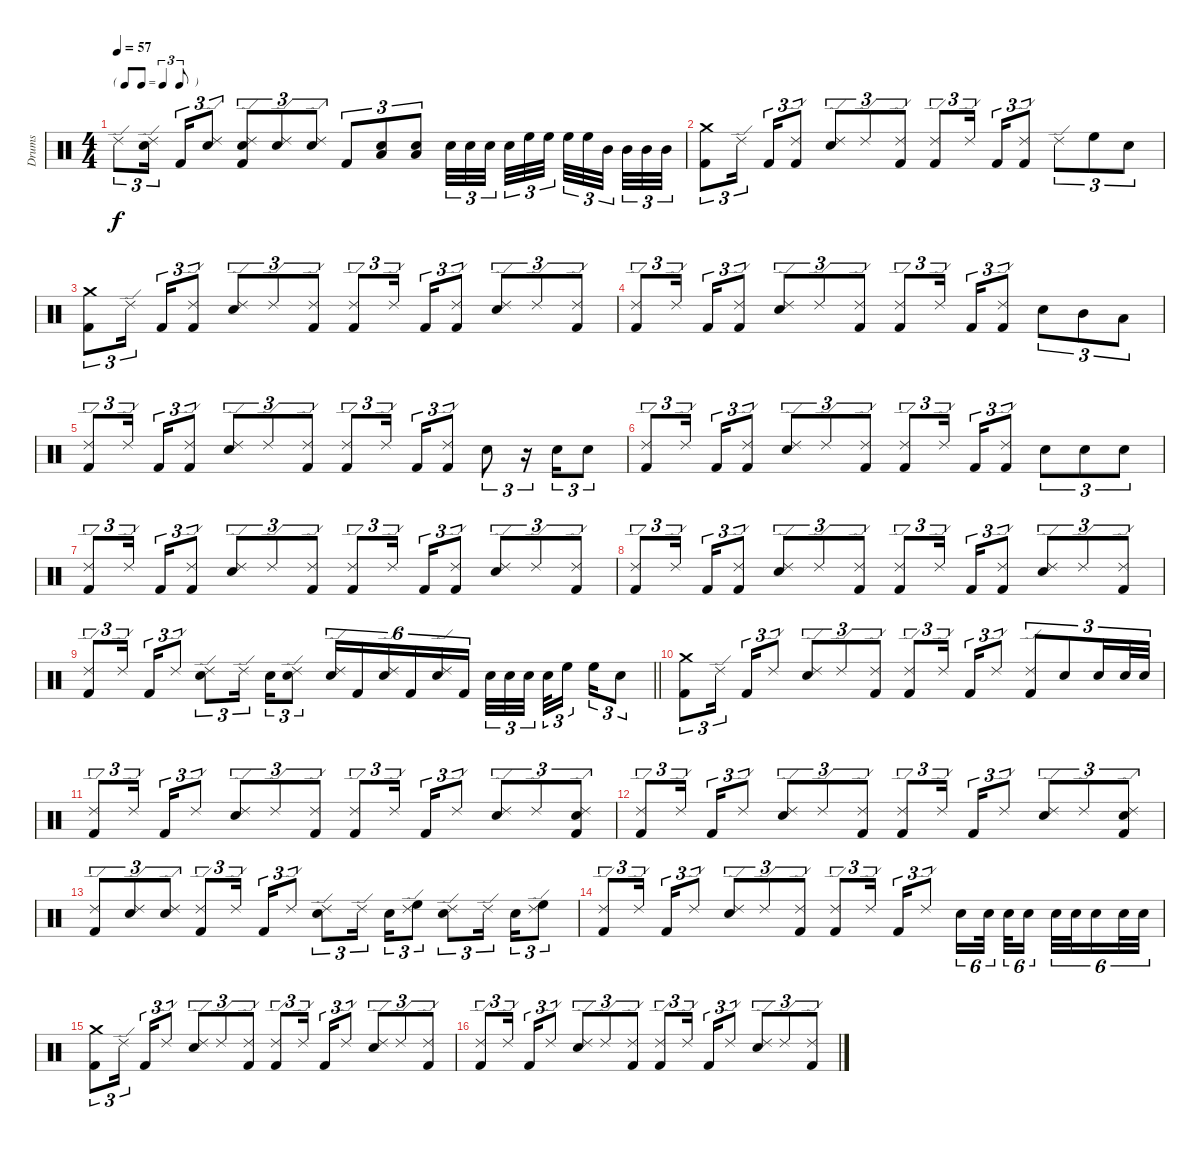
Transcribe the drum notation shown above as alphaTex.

\track ("Drums" "Drums") {instrument percussion}
\staff {score}
\articulation defaults
\ts (4 4)
\tf triplet8th
\tempo 57
\clef neutral
\ks c "Ride (edge) 2".8{tu (3 2) dy f}
("Ride (edge) 2" "Snare (hit) 2").16{tu (3 2)} "Kick (hit) 2".16{tu (3 2)} ("Ride (edge) 2" "Snare (hit) 2").8{tu (3 2)} ("Ride (edge) 2" "Snare (hit) 2" "Kick (hit) 2").8{tu (3 2)} ("Ride (edge) 2" "Snare (hit) 2").8{tu (3 2)} ("Ride (edge) 2" "Snare (hit) 2").8{tu (3 2)} "Kick (hit) 2".8{tu (3 2)} ("Snare (hit) 2" "Low Tom (hit)").8{tu (3 2)} ("Snare (hit) 2" "Low Tom (hit)").8{tu (3 2)} "Snare (hit) 2".32{tu (3 2)} "Snare (hit) 2".32{tu (3 2)} "Snare (hit) 2".32{tu (3 2)} "Snare (hit) 2".32{tu (3 2)} "High Floor Tom (hit)".32{tu (3 2)} "High Floor Tom (hit)".32{tu (3 2)} "High Floor Tom (hit)".32{tu (3 2)} "High Floor Tom (hit)".32{tu (3 2)} "Mid Tom (hit)".32{tu (3 2)} "Mid Tom (hit)".32{tu (3 2)} "Mid Tom (hit)".32{tu (3 2)} "Mid Tom (hit)".32{tu (3 2)} |
("Crash medium (hit)" "Kick (hit) 2").8{tu (3 2)} "Ride (edge) 2".16{tu (3 2)} "Kick (hit) 2".16{tu (3 2)} ("Ride (edge) 2" "Kick (hit) 2").8{tu (3 2)} ("Ride (edge) 2" "Snare (hit) 2").8{tu (3 2)} "Ride (edge) 2".8{tu (3 2)} ("Ride (edge) 2" "Kick (hit) 2").8{tu (3 2)} ("Ride (edge) 2" "Kick (hit) 2").8{tu (3 2)} "Ride (edge) 2".16{tu (3 2)} "Kick (hit) 2".16{tu (3 2)} ("Ride (edge) 2" "Kick (hit) 2").8{tu (3 2)} "Ride (edge) 2".8{tu (3 2)} "High Floor Tom (hit)".8{tu (3 2)} "Snare (hit) 2".8{tu (3 2)} |
("Crash medium (hit)" "Kick (hit) 2").8{tu (3 2)} "Ride (edge) 2".16{tu (3 2)} "Kick (hit) 2".16{tu (3 2)} ("Ride (edge) 2" "Kick (hit) 2").8{tu (3 2)} ("Ride (edge) 2" "Snare (hit) 2").8{tu (3 2)} "Ride (edge) 2".8{tu (3 2)} ("Ride (edge) 2" "Kick (hit) 2").8{tu (3 2)} ("Ride (edge) 2" "Kick (hit) 2").8{tu (3 2)} "Ride (edge) 2".16{tu (3 2)} "Kick (hit) 2".16{tu (3 2)} ("Ride (edge) 2" "Kick (hit) 2").8{tu (3 2)} ("Ride (edge) 2" "Snare (hit) 2").8{tu (3 2)} "Ride (edge) 2".8{tu (3 2)} ("Ride (edge) 2" "Kick (hit) 2").8{tu (3 2)} |
("Ride (edge) 2" "Kick (hit) 2").8{tu (3 2)} "Ride (edge) 2".16{tu (3 2)} "Kick (hit) 2".16{tu (3 2)} ("Ride (edge) 2" "Kick (hit) 2").8{tu (3 2)} ("Ride (edge) 2" "Snare (hit) 2").8{tu (3 2)} "Ride (edge) 2".8{tu (3 2)} ("Ride (edge) 2" "Kick (hit) 2").8{tu (3 2)} ("Ride (edge) 2" "Kick (hit) 2").8{tu (3 2)} "Ride (edge) 2".16{tu (3 2)} "Kick (hit) 2".16{tu (3 2)} ("Ride (edge) 2" "Kick (hit) 2").8{tu (3 2)} "Snare (hit) 2".8{tu (3 2)} "Mid Tom (hit)".8{tu (3 2)} "Low Tom (hit)".8{tu (3 2)} |
("Ride (edge) 2" "Kick (hit) 2").8{tu (3 2)} "Ride (edge) 2".16{tu (3 2)} "Kick (hit) 2".16{tu (3 2)} ("Ride (edge) 2" "Kick (hit) 2").8{tu (3 2)} ("Ride (edge) 2" "Snare (hit) 2").8{tu (3 2)} "Ride (edge) 2".8{tu (3 2)} ("Ride (edge) 2" "Kick (hit) 2").8{tu (3 2)} ("Ride (edge) 2" "Kick (hit) 2").8{tu (3 2)} "Ride (edge) 2".16{tu (3 2)} "Kick (hit) 2".16{tu (3 2)} ("Ride (edge) 2" "Kick (hit) 2").8{tu (3 2)} "Snare (hit) 2".8{tu (3 2)} r.16{tu (3 2)} "Snare (hit) 2".16{tu (3 2)} "Snare (hit) 2".8{tu (3 2)} |
("Ride (edge) 2" "Kick (hit) 2").8{tu (3 2)} "Ride (edge) 2".16{tu (3 2)} "Kick (hit) 2".16{tu (3 2)} ("Ride (edge) 2" "Kick (hit) 2").8{tu (3 2)} ("Ride (edge) 2" "Snare (hit) 2").8{tu (3 2)} "Ride (edge) 2".8{tu (3 2)} ("Ride (edge) 2" "Kick (hit) 2").8{tu (3 2)} ("Ride (edge) 2" "Kick (hit) 2").8{tu (3 2)} "Ride (edge) 2".16{tu (3 2)} "Kick (hit) 2".16{tu (3 2)} ("Ride (edge) 2" "Kick (hit) 2").8{tu (3 2)} "Snare (hit) 2".8{tu (3 2)} "Snare (hit) 2".8{tu (3 2)} "Snare (hit) 2".8{tu (3 2)} |
("Ride (edge) 2" "Kick (hit) 2").8{tu (3 2)} "Ride (edge) 2".16{tu (3 2)} "Kick (hit) 2".16{tu (3 2)} ("Ride (edge) 2" "Kick (hit) 2").8{tu (3 2)} ("Ride (edge) 2" "Snare (hit) 2").8{tu (3 2)} "Ride (edge) 2".8{tu (3 2)} ("Ride (edge) 2" "Kick (hit) 2").8{tu (3 2)} ("Ride (edge) 2" "Kick (hit) 2").8{tu (3 2)} "Ride (edge) 2".16{tu (3 2)} "Kick (hit) 2".16{tu (3 2)} ("Ride (edge) 2" "Kick (hit) 2").8{tu (3 2)} ("Ride (edge) 2" "Snare (hit) 2").8{tu (3 2)} "Ride (edge) 2".8{tu (3 2)} ("Ride (edge) 2" "Kick (hit) 2").8{tu (3 2)} |
("Ride (edge) 2" "Kick (hit) 2").8{tu (3 2)} "Ride (edge) 2".16{tu (3 2)} "Kick (hit) 2".16{tu (3 2)} ("Ride (edge) 2" "Kick (hit) 2").8{tu (3 2)} ("Ride (edge) 2" "Snare (hit) 2").8{tu (3 2)} "Ride (edge) 2".8{tu (3 2)} ("Ride (edge) 2" "Kick (hit) 2").8{tu (3 2)} ("Ride (edge) 2" "Kick (hit) 2").8{tu (3 2)} "Ride (edge) 2".16{tu (3 2)} "Kick (hit) 2".16{tu (3 2)} ("Ride (edge) 2" "Kick (hit) 2").8{tu (3 2)} ("Ride (edge) 2" "Snare (hit) 2").8{tu (3 2)} "Ride (edge) 2".8{tu (3 2)} ("Ride (edge) 2" "Kick (hit) 2").8{tu (3 2)} |
\barLineRight lightlight
("Ride (edge) 2" "Kick (hit) 2").8{tu (3 2)} "Ride (edge) 2".16{tu (3 2)} "Kick (hit) 2".16{tu (3 2)} "Ride (edge) 2".8{tu (3 2)} ("Ride (edge) 2" "Snare (hit) 2").8{tu (3 2)} "Ride (edge) 2".16{tu (3 2)} "Snare (hit) 2".16{tu (3 2)} ("Ride (edge) 2" "Snare (hit) 2").8{tu (3 2)} ("Ride (edge) 2" "Snare (hit) 2").16{tu (6 4)} "Kick (hit) 2".16{tu (6 4)} ("Ride (edge) 2" "Snare (hit) 2").16{tu (6 4)} "Kick (hit) 2".16{tu (6 4)} ("Ride (edge) 2" "Snare (hit) 2").16{tu (6 4)} "Kick (hit) 2".16{tu (6 4)} "Snare (hit) 2".32{tu (3 2)} "Snare (hit) 2".32{tu (3 2)} "Snare (hit) 2".32{tu (3 2)} "Snare (hit) 2".32{tu (3 2)} "High Floor Tom (hit)".16{tu (3 2)} "High Floor Tom (hit)".16{tu (3 2)} "Snare (hit) 2".8{tu (3 2)} |
("Crash medium (hit)" "Kick (hit) 2").8{tu (3 2)} "Ride (edge) 2".16{tu (3 2)} "Kick (hit) 2".16{tu (3 2)} "Ride (edge) 2".8{tu (3 2)} ("Ride (edge) 2" "Snare (hit) 2").8{tu (3 2)} "Ride (edge) 2".8{tu (3 2)} ("Ride (edge) 2" "Kick (hit) 2").8{tu (3 2)} ("Ride (edge) 2" "Kick (hit) 2").8{tu (3 2)} "Ride (edge) 2".16{tu (3 2)} "Kick (hit) 2".16{tu (3 2)} "Ride (edge) 2".8{tu (3 2)} ("Ride (edge) 2" "Kick (hit) 2").8{tu (3 2)} "Snare (hit) 2".8{tu (3 2)} "Snare (hit) 2".16{tu (3 2)} "Snare (hit) 2".32{tu (3 2)} "Snare (hit) 2".32{tu (3 2)} |
("Ride (edge) 2" "Kick (hit) 2").8{tu (3 2)} "Ride (edge) 2".16{tu (3 2)} "Kick (hit) 2".16{tu (3 2)} "Ride (edge) 2".8{tu (3 2)} ("Ride (edge) 2" "Snare (hit) 2").8{tu (3 2)} "Ride (edge) 2".8{tu (3 2)} ("Ride (edge) 2" "Kick (hit) 2").8{tu (3 2)} ("Ride (edge) 2" "Kick (hit) 2").8{tu (3 2)} "Ride (edge) 2".16{tu (3 2)} "Kick (hit) 2".16{tu (3 2)} "Ride (edge) 2".8{tu (3 2)} ("Ride (edge) 2" "Snare (hit) 2").8{tu (3 2)} "Ride (edge) 2".8{tu (3 2)} ("Ride (edge) 2" "Snare (hit) 2" "Kick (hit) 2").8{tu (3 2)} |
("Ride (edge) 2" "Kick (hit) 2").8{tu (3 2)} "Ride (edge) 2".16{tu (3 2)} "Kick (hit) 2".16{tu (3 2)} "Ride (edge) 2".8{tu (3 2)} ("Ride (edge) 2" "Snare (hit) 2").8{tu (3 2)} "Ride (edge) 2".8{tu (3 2)} ("Ride (edge) 2" "Kick (hit) 2").8{tu (3 2)} ("Ride (edge) 2" "Kick (hit) 2").8{tu (3 2)} "Ride (edge) 2".16{tu (3 2)} "Kick (hit) 2".16{tu (3 2)} "Ride (edge) 2".8{tu (3 2)} ("Ride (edge) 2" "Snare (hit) 2").8{tu (3 2)} "Ride (edge) 2".8{tu (3 2)} ("Ride (edge) 2" "Snare (hit) 2" "Kick (hit) 2").8{tu (3 2)} |
("Ride (edge) 2" "Kick (hit) 2").8{tu (3 2)} ("Ride (edge) 2" "Snare (hit) 2").8{tu (3 2)} ("Ride (edge) 2" "Snare (hit) 2").8{tu (3 2)} ("Ride (edge) 2" "Kick (hit) 2").8{tu (3 2)} "Ride (edge) 2".16{tu (3 2)} "Kick (hit) 2".16{tu (3 2)} "Ride (edge) 2".8{tu (3 2)} ("Ride (edge) 2" "Snare (hit) 2").8{tu (3 2)} "Ride (edge) 2".16{tu (3 2)} "Snare (hit) 2".16{tu (3 2)} ("Ride (edge) 2" "High Floor Tom (hit)").8{tu (3 2)} ("Ride (edge) 2" "Snare (hit) 2").8{tu (3 2)} "Ride (edge) 2".16{tu (3 2)} "Snare (hit) 2".16{tu (3 2)} ("Ride (edge) 2" "High Floor Tom (hit)").8{tu (3 2)} |
("Ride (edge) 2" "Kick (hit) 2").8{tu (3 2)} "Ride (edge) 2".16{tu (3 2)} "Kick (hit) 2".16{tu (3 2)} "Ride (edge) 2".8{tu (3 2)} ("Ride (edge) 2" "Snare (hit) 2").8{tu (3 2)} "Ride (edge) 2".8{tu (3 2)} ("Ride (edge) 2" "Kick (hit) 2").8{tu (3 2)} ("Ride (edge) 2" "Kick (hit) 2").8{tu (3 2)} "Ride (edge) 2".16{tu (3 2)} "Kick (hit) 2".16{tu (3 2)} "Ride (edge) 2".8{tu (3 2)} "Snare (hit) 2".16{tu (6 4)} "Snare (hit) 2".32{tu (6 4)} "Snare (hit) 2".32{tu (6 4)} "Snare (hit) 2".16{tu (6 4)} "Snare (hit) 2".32{tu (6 4)} "Snare (hit) 2".32{tu (6 4)} "Snare (hit) 2".16{tu (6 4)} "Snare (hit) 2".32{tu (6 4)} "Snare (hit) 2".32{tu (6 4)} |
("Crash medium (hit)" "Kick (hit) 2").8{tu (3 2)} "Ride (edge) 2".16{tu (3 2)} "Kick (hit) 2".16{tu (3 2)} "Ride (edge) 2".8{tu (3 2)} ("Ride (edge) 2" "Snare (hit) 2").8{tu (3 2)} "Ride (edge) 2".8{tu (3 2)} ("Ride (edge) 2" "Kick (hit) 2").8{tu (3 2)} ("Ride (edge) 2" "Kick (hit) 2").8{tu (3 2)} "Ride (edge) 2".16{tu (3 2)} "Kick (hit) 2".16{tu (3 2)} "Ride (edge) 2".8{tu (3 2)} ("Ride (edge) 2" "Snare (hit) 2").8{tu (3 2)} "Ride (edge) 2".8{tu (3 2)} ("Ride (edge) 2" "Kick (hit) 2").8{tu (3 2)} |
("Ride (edge) 2" "Kick (hit) 2").8{tu (3 2)} "Ride (edge) 2".16{tu (3 2)} "Kick (hit) 2".16{tu (3 2)} "Ride (edge) 2".8{tu (3 2)} ("Ride (edge) 2" "Snare (hit) 2").8{tu (3 2)} "Ride (edge) 2".8{tu (3 2)} ("Ride (edge) 2" "Kick (hit) 2").8{tu (3 2)} ("Ride (edge) 2" "Kick (hit) 2").8{tu (3 2)} "Ride (edge) 2".16{tu (3 2)} "Kick (hit) 2".16{tu (3 2)} "Ride (edge) 2".8{tu (3 2)} ("Ride (edge) 2" "Snare (hit) 2").8{tu (3 2)} "Ride (edge) 2".8{tu (3 2)} ("Ride (edge) 2" "Kick (hit) 2").8{tu (3 2)}
